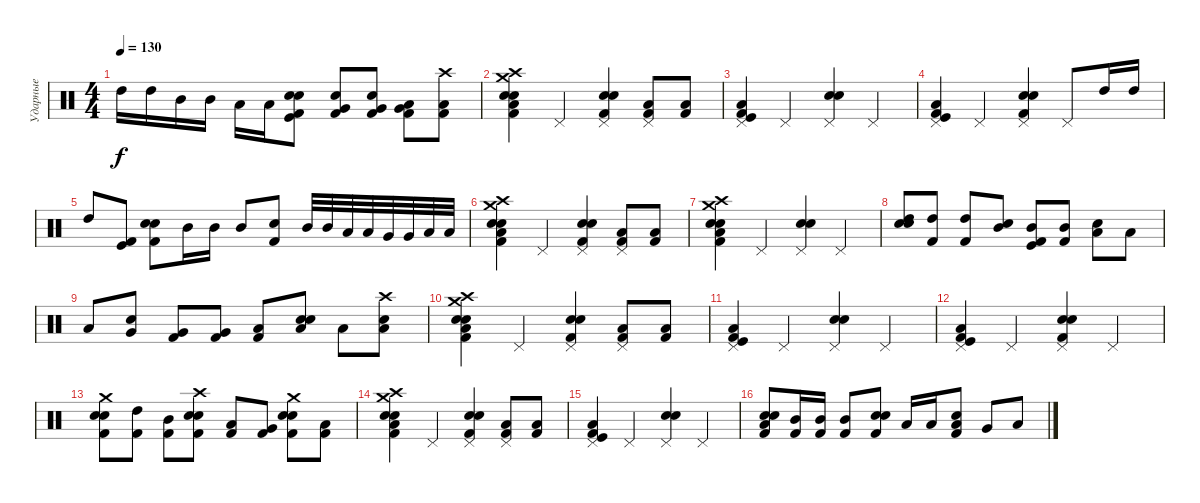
\track ("Ударные" "Ударные") {instrument percussion}
\staff {score}
\articulation defaults
\ts (4 4)
\tempo 130
\clef neutral
\ks c "High Tom (hit)".16{dy f} "High Tom (hit)".16 "Mid Tom (hit)".16 "Mid Tom (hit)".16 "Low Tom (hit)".16 "Low Tom (hit)".16
("Electric Snare (hit)" "Kick (hit) 2" "Kick (hit)" "Snare (hit) 2").8 ("Electric Snare (hit)" "Very Low Tom (hit)" "Kick (hit) 2").8 ("Electric Snare (hit)" "Very Low Tom (hit)" "Kick (hit) 2").8 ("Kick (hit) 2" "Low Floor Tom (hit)" "Very Low Tom (hit)").8 ("Crash high (hit)" "Kick (hit) 2" "Low Floor Tom (hit)").8 |
("Kick (hit) 2" "Electric Snare (hit)" "Snare (hit) 2" "Crash high (hit)" "Crash medium (hit)" "Low Floor Tom (hit)").4 "Pedal Hi-Hat (hit)".4 ("Pedal Hi-Hat (hit)" "Kick (hit) 2" "Snare (hit) 2" "Electric Snare (hit)").4 ("Kick (hit) 2" "Pedal Hi-Hat (hit)" "Low Floor Tom (hit)").8 ("Low Floor Tom (hit)" "Kick (hit) 2").8 |
("Kick (hit) 2" "Kick (hit)" "Pedal Hi-Hat (hit)" "Low Floor Tom (hit)").4 "Pedal Hi-Hat (hit)".4 ("Pedal Hi-Hat (hit)" "Snare (hit) 2" "Electric Snare (hit)").4 "Pedal Hi-Hat (hit)".4 |
("Kick (hit) 2" "Kick (hit)" "Pedal Hi-Hat (hit)" "Low Floor Tom (hit)").4 "Pedal Hi-Hat (hit)".4 ("Kick (hit) 2" "Pedal Hi-Hat (hit)" "Snare (hit) 2" "Electric Snare (hit)").4 "Pedal Hi-Hat (hit)".8 "High Tom (hit)".16 "High Tom (hit)".16 |
"High Tom (hit)".8 ("Kick (hit) 2" "Kick (hit)").8 ("Kick (hit) 2" "Electric Snare (hit)" "Snare (hit) 2").8 "Mid Tom (hit)".16 "Mid Tom (hit)".16 "Mid Tom (hit)".8 ("Kick (hit) 2" "Electric Snare (hit)").8 "Mid Tom (hit)".32 "Mid Tom (hit)".32 "Low Tom (hit)".32 "Low Tom (hit)".32 "Very Low Tom (hit)".32 "Very Low Tom (hit)".32 "Low Floor Tom (hit)".32 "Low Floor Tom (hit)".32 |
("Kick (hit) 2" "Electric Snare (hit)" "Snare (hit) 2" "Crash high (hit)" "Crash medium (hit)" "Low Floor Tom (hit)").4 "Pedal Hi-Hat (hit)".4 ("Pedal Hi-Hat (hit)" "Kick (hit) 2" "Snare (hit) 2" "Electric Snare (hit)").4 ("Kick (hit) 2" "Pedal Hi-Hat (hit)" "Low Floor Tom (hit)").8 ("Low Floor Tom (hit)" "Kick (hit) 2").8 |
("Crash high (hit)" "Kick (hit) 2" "Electric Snare (hit)" "Snare (hit) 2" "Low Floor Tom (hit)" "Crash medium (hit)").4 "Pedal Hi-Hat (hit)".4 ("Pedal Hi-Hat (hit)" "Snare (hit) 2" "Electric Snare (hit)").4 "Pedal Hi-Hat (hit)".4 |
("High Tom (hit)" "Electric Snare (hit)" "Snare (hit) 2").8 ("High Tom (hit)" "Kick (hit) 2").8 ("High Tom (hit)" "Kick (hit) 2").8 ("Electric Snare (hit)" "Mid Tom (hit)").8 ("Kick (hit) 2" "Mid Tom (hit)" "Kick (hit)").8 ("Kick (hit) 2" "Mid Tom (hit)").8 ("Electric Snare (hit)" "Low Tom (hit)").8 "Low Tom (hit)".8 |
"Low Tom (hit)".8 ("Very Low Tom (hit)" "Snare (hit) 2").8 ("Very Low Tom (hit)" "Kick (hit) 2").8 ("Very Low Tom (hit)" "Kick (hit) 2").8 ("Low Floor Tom (hit)" "Kick (hit) 2").8 ("Snare (hit) 2" "Low Floor Tom (hit)" "Electric Snare (hit)").8 "Low Floor Tom (hit)".8 ("Electric Snare (hit)" "Low Floor Tom (hit)" "Crash high (hit)").8 |
("Kick (hit) 2" "Electric Snare (hit)" "Snare (hit) 2" "Crash high (hit)" "Crash medium (hit)" "Low Floor Tom (hit)").4 "Pedal Hi-Hat (hit)".4 ("Pedal Hi-Hat (hit)" "Kick (hit) 2" "Snare (hit) 2" "Electric Snare (hit)").4 ("Kick (hit) 2" "Pedal Hi-Hat (hit)" "Low Floor Tom (hit)").8 ("Low Floor Tom (hit)" "Kick (hit) 2").8 |
("Kick (hit) 2" "Kick (hit)" "Pedal Hi-Hat (hit)" "Low Floor Tom (hit)").4 "Pedal Hi-Hat (hit)".4 ("Pedal Hi-Hat (hit)" "Snare (hit) 2" "Electric Snare (hit)").4 "Pedal Hi-Hat (hit)".4 |
("Kick (hit) 2" "Kick (hit)" "Pedal Hi-Hat (hit)" "Low Floor Tom (hit)").4 "Pedal Hi-Hat (hit)".4 ("Kick (hit) 2" "Pedal Hi-Hat (hit)" "Snare (hit) 2" "Electric Snare (hit)").4 "Pedal Hi-Hat (hit)".4 |
("Crash medium (hit)" "Electric Snare (hit)" "Snare (hit) 2" "Kick (hit) 2").8 ("Kick (hit) 2" "High Tom (hit)").8 ("Mid Tom (hit)" "Kick (hit) 2").8 ("Crash high (hit)" "Electric Snare (hit)" "Snare (hit) 2" "Kick (hit) 2").8 ("Kick (hit) 2" "Low Tom (hit)").8 ("Kick (hit) 2" "Very Low Tom (hit)").8 ("Crash medium (hit)" "Electric Snare (hit)" "Snare (hit) 2" "Kick (hit) 2").8 ("Kick (hit) 2" "Low Floor Tom (hit)").8 |
("Kick (hit) 2" "Electric Snare (hit)" "Snare (hit) 2" "Crash high (hit)" "Crash medium (hit)" "Low Floor Tom (hit)").4 "Pedal Hi-Hat (hit)".4 ("Pedal Hi-Hat (hit)" "Kick (hit) 2" "Snare (hit) 2" "Electric Snare (hit)").4 ("Kick (hit) 2" "Pedal Hi-Hat (hit)" "Low Floor Tom (hit)").8 ("Low Floor Tom (hit)" "Kick (hit) 2").8 |
("Kick (hit) 2" "Kick (hit)" "Pedal Hi-Hat (hit)" "Low Floor Tom (hit)").4 "Pedal Hi-Hat (hit)".4 ("Pedal Hi-Hat (hit)" "Snare (hit) 2" "Electric Snare (hit)").4 "Pedal Hi-Hat (hit)".4 |
("Snare (hit) 2" "Electric Snare (hit)" "Kick (hit) 2" "Low Floor Tom (hit)").8 ("Kick (hit) 2" "Mid Tom (hit)").16 ("Kick (hit) 2" "Mid Tom (hit)").16 ("Kick (hit) 2" "Mid Tom (hit)").8 ("Snare (hit) 2" "Electric Snare (hit)" "Kick (hit) 2").8 "Low Tom (hit)".16 "Low Tom (hit)".16 ("Low Tom (hit)" "Kick (hit) 2" "Electric Snare (hit)").8 "Very Low Tom (hit)".8 "Low Floor Tom (hit)".8
